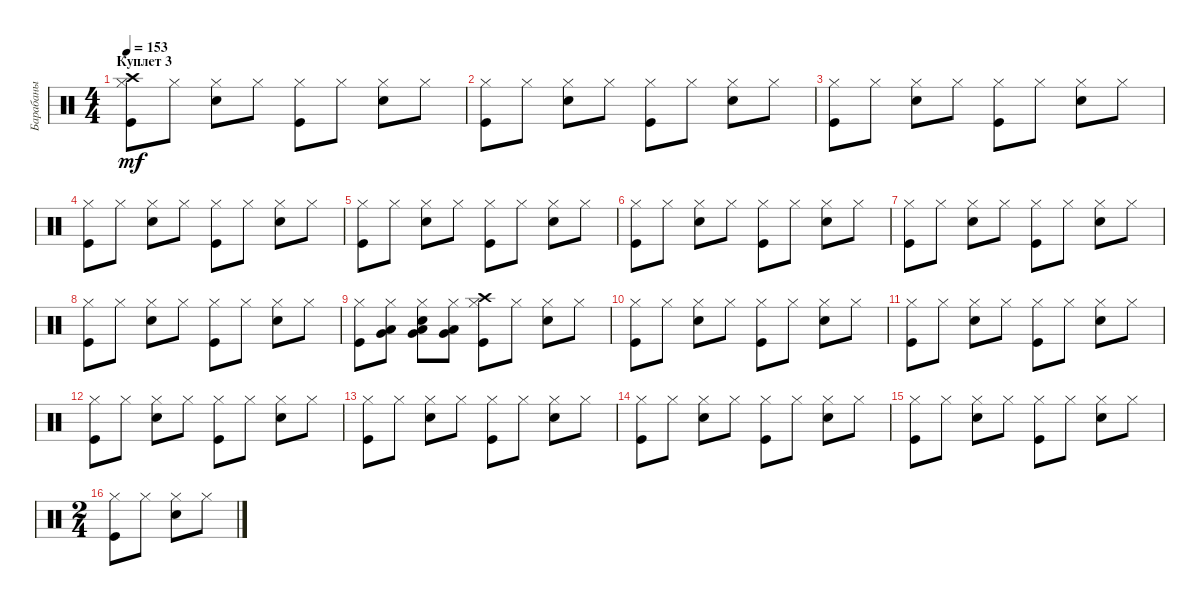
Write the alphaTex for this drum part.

\track ("Барабаны" "Барабаны") {instrument percussion}
\staff {score}
\articulation defaults
\ts (4 4)
\section ("" "Куплет 3")
\tempo 153
\clef neutral
\ks c
("Kick (hit)" "Hi-Hat (closed)" "Crash high (hit)").8{dy mf} "Hi-Hat (closed)".8 ("Snare (hit) 2" "Hi-Hat (closed)").8 "Hi-Hat (closed)".8 ("Kick (hit)" "Hi-Hat (closed)").8 "Hi-Hat (closed)".8 ("Snare (hit) 2" "Hi-Hat (closed)").8 "Hi-Hat (closed)".8 |
("Kick (hit)" "Hi-Hat (closed)").8 "Hi-Hat (closed)".8 ("Snare (hit) 2" "Hi-Hat (closed)").8 "Hi-Hat (closed)".8 ("Kick (hit)" "Hi-Hat (closed)").8 "Hi-Hat (closed)".8 ("Snare (hit) 2" "Hi-Hat (closed)").8 "Hi-Hat (closed)".8 |
("Kick (hit)" "Hi-Hat (closed)").8 "Hi-Hat (closed)".8 ("Snare (hit) 2" "Hi-Hat (closed)").8 "Hi-Hat (closed)".8 ("Kick (hit)" "Hi-Hat (closed)").8 "Hi-Hat (closed)".8 ("Snare (hit) 2" "Hi-Hat (closed)").8 "Hi-Hat (closed)".8 |
("Kick (hit)" "Hi-Hat (closed)").8 "Hi-Hat (closed)".8 ("Snare (hit) 2" "Hi-Hat (closed)").8 "Hi-Hat (closed)".8 ("Kick (hit)" "Hi-Hat (closed)").8 "Hi-Hat (closed)".8 ("Snare (hit) 2" "Hi-Hat (closed)").8 "Hi-Hat (closed)".8 |
("Kick (hit)" "Hi-Hat (closed)").8 "Hi-Hat (closed)".8 ("Snare (hit) 2" "Hi-Hat (closed)").8 "Hi-Hat (closed)".8 ("Kick (hit)" "Hi-Hat (closed)").8 "Hi-Hat (closed)".8 ("Snare (hit) 2" "Hi-Hat (closed)").8 "Hi-Hat (closed)".8 |
("Kick (hit)" "Hi-Hat (closed)").8 "Hi-Hat (closed)".8 ("Snare (hit) 2" "Hi-Hat (closed)").8 "Hi-Hat (closed)".8 ("Kick (hit)" "Hi-Hat (closed)").8 "Hi-Hat (closed)".8 ("Snare (hit) 2" "Hi-Hat (closed)").8 "Hi-Hat (closed)".8 |
("Kick (hit)" "Hi-Hat (closed)").8 "Hi-Hat (closed)".8 ("Snare (hit) 2" "Hi-Hat (closed)").8 "Hi-Hat (closed)".8 ("Kick (hit)" "Hi-Hat (closed)").8 "Hi-Hat (closed)".8 ("Snare (hit) 2" "Hi-Hat (closed)").8 "Hi-Hat (closed)".8 |
("Kick (hit)" "Hi-Hat (closed)").8 "Hi-Hat (closed)".8 ("Snare (hit) 2" "Hi-Hat (closed)").8 "Hi-Hat (closed)".8 ("Kick (hit)" "Hi-Hat (closed)").8 "Hi-Hat (closed)".8 ("Snare (hit) 2" "Hi-Hat (closed)").8 "Hi-Hat (closed)".8 |
("Kick (hit)" "Hi-Hat (closed)").8 ("Hi-Hat (closed)" "Low Floor Tom (hit)" "Very Low Tom (hit)").8 ("Snare (hit) 2" "Hi-Hat (closed)" "Low Floor Tom (hit)" "Very Low Tom (hit)").8 ("Hi-Hat (closed)" "Low Floor Tom (hit)" "Very Low Tom (hit)").8 ("Kick (hit)" "Hi-Hat (closed)" "Crash high (hit)").8 "Hi-Hat (closed)".8 ("Snare (hit) 2" "Hi-Hat (closed)").8 "Hi-Hat (closed)".8 |
("Kick (hit)" "Hi-Hat (closed)").8 "Hi-Hat (closed)".8 ("Snare (hit) 2" "Hi-Hat (closed)").8 "Hi-Hat (closed)".8 ("Kick (hit)" "Hi-Hat (closed)").8 "Hi-Hat (closed)".8 ("Snare (hit) 2" "Hi-Hat (closed)").8 "Hi-Hat (closed)".8 |
("Kick (hit)" "Hi-Hat (closed)").8 "Hi-Hat (closed)".8 ("Snare (hit) 2" "Hi-Hat (closed)").8 "Hi-Hat (closed)".8 ("Kick (hit)" "Hi-Hat (closed)").8 "Hi-Hat (closed)".8 ("Snare (hit) 2" "Hi-Hat (closed)").8 "Hi-Hat (closed)".8 |
("Kick (hit)" "Hi-Hat (closed)").8 "Hi-Hat (closed)".8 ("Snare (hit) 2" "Hi-Hat (closed)").8 "Hi-Hat (closed)".8 ("Kick (hit)" "Hi-Hat (closed)").8 "Hi-Hat (closed)".8 ("Snare (hit) 2" "Hi-Hat (closed)").8 "Hi-Hat (closed)".8 |
("Kick (hit)" "Hi-Hat (closed)").8 "Hi-Hat (closed)".8 ("Snare (hit) 2" "Hi-Hat (closed)").8 "Hi-Hat (closed)".8 ("Kick (hit)" "Hi-Hat (closed)").8 "Hi-Hat (closed)".8 ("Snare (hit) 2" "Hi-Hat (closed)").8 "Hi-Hat (closed)".8 |
("Kick (hit)" "Hi-Hat (closed)").8 "Hi-Hat (closed)".8 ("Snare (hit) 2" "Hi-Hat (closed)").8 "Hi-Hat (closed)".8 ("Kick (hit)" "Hi-Hat (closed)").8 "Hi-Hat (closed)".8 ("Snare (hit) 2" "Hi-Hat (closed)").8 "Hi-Hat (closed)".8 |
("Kick (hit)" "Hi-Hat (closed)").8 "Hi-Hat (closed)".8 ("Snare (hit) 2" "Hi-Hat (closed)").8 "Hi-Hat (closed)".8 ("Kick (hit)" "Hi-Hat (closed)").8 "Hi-Hat (closed)".8 ("Snare (hit) 2" "Hi-Hat (closed)").8 "Hi-Hat (closed)".8 |
\ts (2 4)
("Kick (hit)" "Hi-Hat (closed)").8 "Hi-Hat (closed)".8 ("Snare (hit) 2" "Hi-Hat (closed)").8 "Hi-Hat (closed)".8
